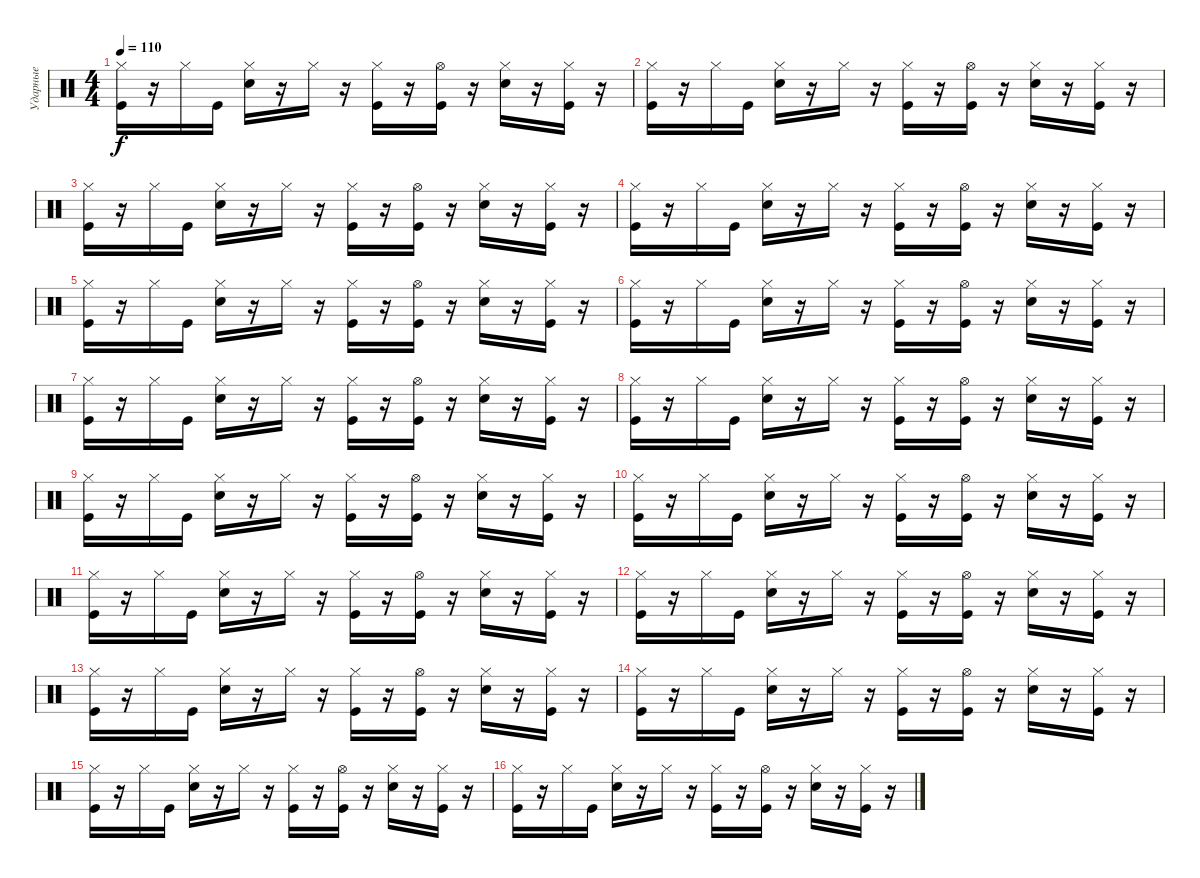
\track ("Ударные" "Ударные") {instrument percussion}
\staff {score}
\articulation defaults
\ts (4 4)
\tempo 110
\clef neutral
\ks c
("Hi-Hat (closed)" "Kick (hit)").16{dy f} r.16 "Hi-Hat (closed)".16 "Kick (hit)".16 ("Hi-Hat (closed)" "Snare (hit) 2").16 r.16 "Hi-Hat (closed)".16 r.16 ("Hi-Hat (closed)" "Kick (hit)").16 r.16 ("Hi-Hat (open)" "Kick (hit)").16 r.16 ("Snare (hit) 2" "Hi-Hat (closed)").16 r.16 ("Hi-Hat (closed)" "Kick (hit)").16 r.16 |
("Hi-Hat (closed)" "Kick (hit)").16 r.16 "Hi-Hat (closed)".16 "Kick (hit)".16 ("Hi-Hat (closed)" "Snare (hit) 2").16 r.16 "Hi-Hat (closed)".16 r.16 ("Hi-Hat (closed)" "Kick (hit)").16 r.16 ("Hi-Hat (open)" "Kick (hit)").16 r.16 ("Snare (hit) 2" "Hi-Hat (closed)").16 r.16 ("Hi-Hat (closed)" "Kick (hit)").16 r.16 |
("Hi-Hat (closed)" "Kick (hit)").16 r.16 "Hi-Hat (closed)".16 "Kick (hit)".16 ("Hi-Hat (closed)" "Snare (hit) 2").16 r.16 "Hi-Hat (closed)".16 r.16 ("Hi-Hat (closed)" "Kick (hit)").16 r.16 ("Hi-Hat (open)" "Kick (hit)").16 r.16 ("Snare (hit) 2" "Hi-Hat (closed)").16 r.16 ("Hi-Hat (closed)" "Kick (hit)").16 r.16 |
("Hi-Hat (closed)" "Kick (hit)").16 r.16 "Hi-Hat (closed)".16 "Kick (hit)".16 ("Hi-Hat (closed)" "Snare (hit) 2").16 r.16 "Hi-Hat (closed)".16 r.16 ("Hi-Hat (closed)" "Kick (hit)").16 r.16 ("Hi-Hat (open)" "Kick (hit)").16 r.16 ("Snare (hit) 2" "Hi-Hat (closed)").16 r.16 ("Hi-Hat (closed)" "Kick (hit)").16 r.16 |
("Hi-Hat (closed)" "Kick (hit)").16 r.16 "Hi-Hat (closed)".16 "Kick (hit)".16 ("Hi-Hat (closed)" "Snare (hit) 2").16 r.16 "Hi-Hat (closed)".16 r.16 ("Hi-Hat (closed)" "Kick (hit)").16 r.16 ("Hi-Hat (open)" "Kick (hit)").16 r.16 ("Snare (hit) 2" "Hi-Hat (closed)").16 r.16 ("Hi-Hat (closed)" "Kick (hit)").16 r.16 |
("Hi-Hat (closed)" "Kick (hit)").16 r.16 "Hi-Hat (closed)".16 "Kick (hit)".16 ("Hi-Hat (closed)" "Snare (hit) 2").16 r.16 "Hi-Hat (closed)".16 r.16 ("Hi-Hat (closed)" "Kick (hit)").16 r.16 ("Hi-Hat (open)" "Kick (hit)").16 r.16 ("Snare (hit) 2" "Hi-Hat (closed)").16 r.16 ("Hi-Hat (closed)" "Kick (hit)").16 r.16 |
("Hi-Hat (closed)" "Kick (hit)").16 r.16 "Hi-Hat (closed)".16 "Kick (hit)".16 ("Hi-Hat (closed)" "Snare (hit) 2").16 r.16 "Hi-Hat (closed)".16 r.16 ("Hi-Hat (closed)" "Kick (hit)").16 r.16 ("Hi-Hat (open)" "Kick (hit)").16 r.16 ("Snare (hit) 2" "Hi-Hat (closed)").16 r.16 ("Hi-Hat (closed)" "Kick (hit)").16 r.16 |
("Hi-Hat (closed)" "Kick (hit)").16 r.16 "Hi-Hat (closed)".16 "Kick (hit)".16 ("Hi-Hat (closed)" "Snare (hit) 2").16 r.16 "Hi-Hat (closed)".16 r.16 ("Hi-Hat (closed)" "Kick (hit)").16 r.16 ("Hi-Hat (open)" "Kick (hit)").16 r.16 ("Snare (hit) 2" "Hi-Hat (closed)").16 r.16 ("Hi-Hat (closed)" "Kick (hit)").16 r.16 |
("Hi-Hat (closed)" "Kick (hit)").16 r.16 "Hi-Hat (closed)".16 "Kick (hit)".16 ("Hi-Hat (closed)" "Snare (hit) 2").16 r.16 "Hi-Hat (closed)".16 r.16 ("Hi-Hat (closed)" "Kick (hit)").16 r.16 ("Hi-Hat (open)" "Kick (hit)").16 r.16 ("Snare (hit) 2" "Hi-Hat (closed)").16 r.16 ("Hi-Hat (closed)" "Kick (hit)").16 r.16 |
("Hi-Hat (closed)" "Kick (hit)").16 r.16 "Hi-Hat (closed)".16 "Kick (hit)".16 ("Hi-Hat (closed)" "Snare (hit) 2").16 r.16 "Hi-Hat (closed)".16 r.16 ("Hi-Hat (closed)" "Kick (hit)").16 r.16 ("Hi-Hat (open)" "Kick (hit)").16 r.16 ("Snare (hit) 2" "Hi-Hat (closed)").16 r.16 ("Hi-Hat (closed)" "Kick (hit)").16 r.16 |
("Hi-Hat (closed)" "Kick (hit)").16 r.16 "Hi-Hat (closed)".16 "Kick (hit)".16 ("Hi-Hat (closed)" "Snare (hit) 2").16 r.16 "Hi-Hat (closed)".16 r.16 ("Hi-Hat (closed)" "Kick (hit)").16 r.16 ("Hi-Hat (open)" "Kick (hit)").16 r.16 ("Snare (hit) 2" "Hi-Hat (closed)").16 r.16 ("Hi-Hat (closed)" "Kick (hit)").16 r.16 |
("Hi-Hat (closed)" "Kick (hit)").16 r.16 "Hi-Hat (closed)".16 "Kick (hit)".16 ("Hi-Hat (closed)" "Snare (hit) 2").16 r.16 "Hi-Hat (closed)".16 r.16 ("Hi-Hat (closed)" "Kick (hit)").16 r.16 ("Hi-Hat (open)" "Kick (hit)").16 r.16 ("Snare (hit) 2" "Hi-Hat (closed)").16 r.16 ("Hi-Hat (closed)" "Kick (hit)").16 r.16 |
("Hi-Hat (closed)" "Kick (hit)").16 r.16 "Hi-Hat (closed)".16 "Kick (hit)".16 ("Hi-Hat (closed)" "Snare (hit) 2").16 r.16 "Hi-Hat (closed)".16 r.16 ("Hi-Hat (closed)" "Kick (hit)").16 r.16 ("Hi-Hat (open)" "Kick (hit)").16 r.16 ("Snare (hit) 2" "Hi-Hat (closed)").16 r.16 ("Hi-Hat (closed)" "Kick (hit)").16 r.16 |
("Hi-Hat (closed)" "Kick (hit)").16 r.16 "Hi-Hat (closed)".16 "Kick (hit)".16 ("Hi-Hat (closed)" "Snare (hit) 2").16 r.16 "Hi-Hat (closed)".16 r.16 ("Hi-Hat (closed)" "Kick (hit)").16 r.16 ("Hi-Hat (open)" "Kick (hit)").16 r.16 ("Snare (hit) 2" "Hi-Hat (closed)").16 r.16 ("Hi-Hat (closed)" "Kick (hit)").16 r.16 |
("Hi-Hat (closed)" "Kick (hit)").16 r.16 "Hi-Hat (closed)".16 "Kick (hit)".16 ("Hi-Hat (closed)" "Snare (hit) 2").16 r.16 "Hi-Hat (closed)".16 r.16 ("Hi-Hat (closed)" "Kick (hit)").16 r.16 ("Hi-Hat (open)" "Kick (hit)").16 r.16 ("Snare (hit) 2" "Hi-Hat (closed)").16 r.16 ("Hi-Hat (closed)" "Kick (hit)").16 r.16 |
("Hi-Hat (closed)" "Kick (hit)").16 r.16 "Hi-Hat (closed)".16 "Kick (hit)".16 ("Hi-Hat (closed)" "Snare (hit) 2").16 r.16 "Hi-Hat (closed)".16 r.16 ("Hi-Hat (closed)" "Kick (hit)").16 r.16 ("Hi-Hat (open)" "Kick (hit)").16 r.16 ("Snare (hit) 2" "Hi-Hat (closed)").16 r.16 ("Hi-Hat (closed)" "Kick (hit)").16 r.16
